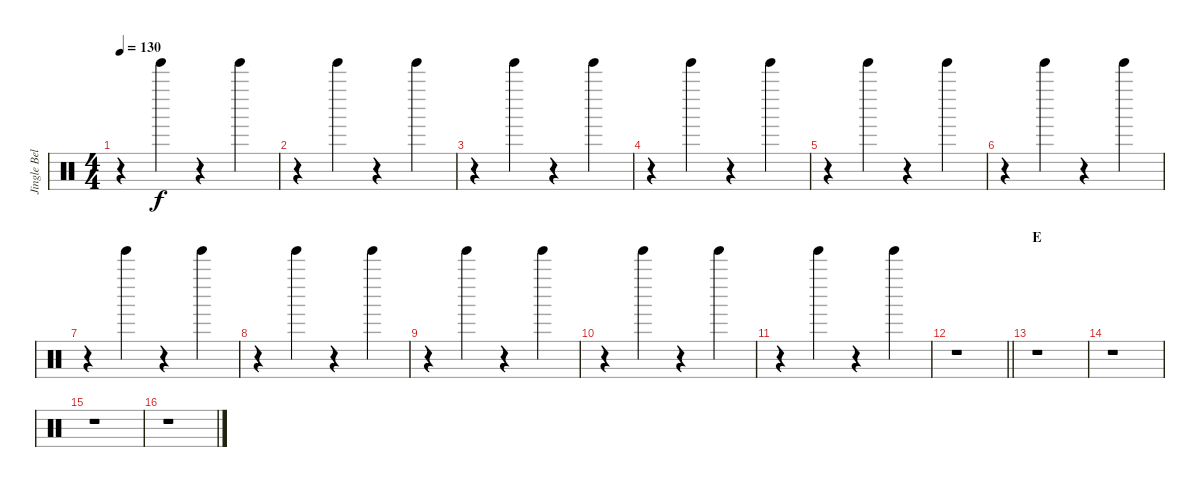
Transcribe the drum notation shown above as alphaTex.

\track ("Jingle Bell" "Jingle Bel") {instrument percussion}
\staff {score}
\articulation defaults
\ts (4 4)
\tempo 130
\clef neutral
\ks c
r.4{dy f} "Tinkle Bell (hit)".4 r.4 "Tinkle Bell (hit)".4 |
r.4 "Tinkle Bell (hit)".4 r.4 "Tinkle Bell (hit)".4 |
r.4 "Tinkle Bell (hit)".4 r.4 "Tinkle Bell (hit)".4 |
r.4 "Tinkle Bell (hit)".4 r.4 "Tinkle Bell (hit)".4 |
r.4 "Tinkle Bell (hit)".4 r.4 "Tinkle Bell (hit)".4 |
r.4 "Tinkle Bell (hit)".4 r.4 "Tinkle Bell (hit)".4 |
r.4 "Tinkle Bell (hit)".4 r.4 "Tinkle Bell (hit)".4 |
r.4 "Tinkle Bell (hit)".4 r.4 "Tinkle Bell (hit)".4 |
r.4 "Tinkle Bell (hit)".4 r.4 "Tinkle Bell (hit)".4 |
r.4 "Tinkle Bell (hit)".4 r.4 "Tinkle Bell (hit)".4 |
r.4 "Tinkle Bell (hit)".4 r.4 "Tinkle Bell (hit)".4 |
\barLineRight lightlight
r.1 |
\section ("" "E")
r.1 |
r.1 |
r.1 |
r.1
